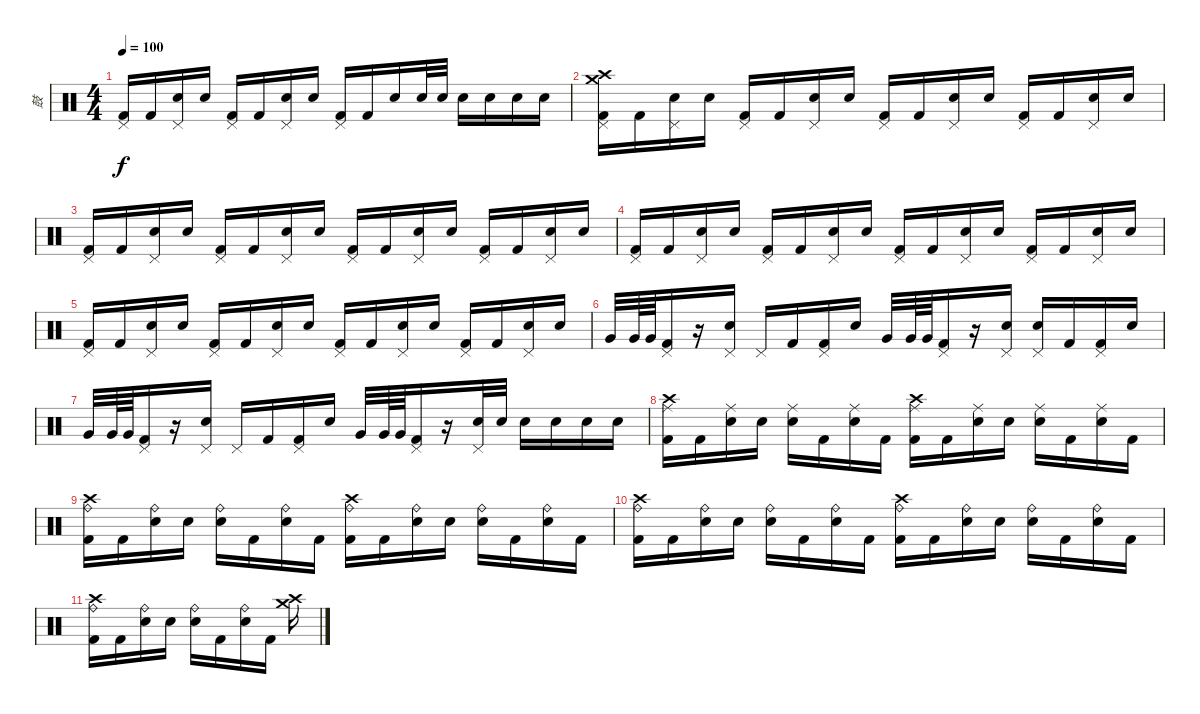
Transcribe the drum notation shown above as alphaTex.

\track ("鼓" "鼓") {instrument percussion}
\staff {score}
\articulation defaults
\ts (4 4)
\tempo 100
\clef neutral
\ks c
("Pedal Hi-Hat (hit)" "Kick (hit) 2").16{dy f} "Kick (hit) 2".16 ("Pedal Hi-Hat (hit)" "Electric Snare (hit)").16 "Snare (hit)".16 ("Pedal Hi-Hat (hit)" "Kick (hit) 2").16 "Kick (hit) 2".16 ("Pedal Hi-Hat (hit)" "Electric Snare (hit)").16 "Snare (hit)".16 ("Pedal Hi-Hat (hit)" "Kick (hit) 2").16 "Kick (hit) 2".16 "Electric Snare (hit)".16 "Electric Snare (hit)".32 "Electric Snare (hit)".32 "Electric Snare (hit)".16 "Electric Snare (hit)".16 "Electric Snare (hit)".16 "Electric Snare (hit)".16 |
("Crash medium (hit)" "Crash high (hit)" "Pedal Hi-Hat (hit)" "Kick (hit) 2").16 "Kick (hit) 2".16 ("Pedal Hi-Hat (hit)" "Electric Snare (hit)").16 "Snare (hit)".16 ("Pedal Hi-Hat (hit)" "Kick (hit) 2").16 "Kick (hit) 2".16 ("Pedal Hi-Hat (hit)" "Electric Snare (hit)").16 "Snare (hit)".16 ("Pedal Hi-Hat (hit)" "Kick (hit) 2").16 "Kick (hit) 2".16 ("Pedal Hi-Hat (hit)" "Electric Snare (hit)").16 "Snare (hit)".16 ("Pedal Hi-Hat (hit)" "Kick (hit) 2").16 "Kick (hit) 2".16 ("Pedal Hi-Hat (hit)" "Electric Snare (hit)").16 "Snare (hit)".16 |
("Pedal Hi-Hat (hit)" "Kick (hit) 2").16 "Kick (hit) 2".16 ("Pedal Hi-Hat (hit)" "Electric Snare (hit)").16 "Snare (hit)".16 ("Pedal Hi-Hat (hit)" "Kick (hit) 2").16 "Kick (hit) 2".16 ("Pedal Hi-Hat (hit)" "Electric Snare (hit)").16 "Snare (hit)".16 ("Pedal Hi-Hat (hit)" "Kick (hit) 2").16 "Kick (hit) 2".16 ("Pedal Hi-Hat (hit)" "Electric Snare (hit)").16 "Snare (hit)".16 ("Pedal Hi-Hat (hit)" "Kick (hit) 2").16 "Kick (hit) 2".16 ("Pedal Hi-Hat (hit)" "Electric Snare (hit)").16 "Snare (hit)".16 |
("Pedal Hi-Hat (hit)" "Kick (hit) 2").16 "Kick (hit) 2".16 ("Pedal Hi-Hat (hit)" "Electric Snare (hit)").16 "Snare (hit)".16 ("Pedal Hi-Hat (hit)" "Kick (hit) 2").16 "Kick (hit) 2".16 ("Pedal Hi-Hat (hit)" "Electric Snare (hit)").16 "Snare (hit)".16 ("Pedal Hi-Hat (hit)" "Kick (hit) 2").16 "Kick (hit) 2".16 ("Pedal Hi-Hat (hit)" "Electric Snare (hit)").16 "Snare (hit)".16 ("Pedal Hi-Hat (hit)" "Kick (hit) 2").16 "Kick (hit) 2".16 ("Pedal Hi-Hat (hit)" "Electric Snare (hit)").16 "Snare (hit)".16 |
("Pedal Hi-Hat (hit)" "Kick (hit) 2").16 "Kick (hit) 2".16 ("Pedal Hi-Hat (hit)" "Electric Snare (hit)").16 "Snare (hit)".16 ("Pedal Hi-Hat (hit)" "Kick (hit) 2").16 "Kick (hit) 2".16 ("Pedal Hi-Hat (hit)" "Electric Snare (hit)").16 "Snare (hit)".16 ("Pedal Hi-Hat (hit)" "Kick (hit) 2").16 "Kick (hit) 2".16 ("Pedal Hi-Hat (hit)" "Electric Snare (hit)").16 "Snare (hit)".16 ("Pedal Hi-Hat (hit)" "Kick (hit) 2").16 "Kick (hit) 2".16 ("Pedal Hi-Hat (hit)" "Electric Snare (hit)").16 "Snare (hit)".16 |
"Very Low Tom (hit)".32 "Very Low Tom (hit)".64 "Very Low Tom (hit)".64 ("Pedal Hi-Hat (hit)" "Kick (hit) 2").16 r.16 ("Pedal Hi-Hat (hit)" "Electric Snare (hit)").16 "Pedal Hi-Hat (hit)".16 "Kick (hit) 2".16 ("Pedal Hi-Hat (hit)" "Kick (hit) 2").16 "Electric Snare (hit)".16 "Very Low Tom (hit)".32 "Very Low Tom (hit)".64 "Very Low Tom (hit)".64 ("Pedal Hi-Hat (hit)" "Kick (hit) 2").16 r.16 ("Pedal Hi-Hat (hit)" "Electric Snare (hit)").16 ("Pedal Hi-Hat (hit)" "Snare (hit)").16 "Kick (hit) 2".16 ("Pedal Hi-Hat (hit)" "Kick (hit) 2").16 "Electric Snare (hit)".16 |
"Very Low Tom (hit)".32 "Very Low Tom (hit)".64 "Very Low Tom (hit)".64 ("Pedal Hi-Hat (hit)" "Kick (hit) 2").16 r.16 ("Pedal Hi-Hat (hit)" "Electric Snare (hit)").16 "Pedal Hi-Hat (hit)".16 "Kick (hit) 2".16 ("Pedal Hi-Hat (hit)" "Kick (hit) 2").16 "Electric Snare (hit)".16 "Very Low Tom (hit)".32 "Very Low Tom (hit)".64 "Very Low Tom (hit)".64 ("Pedal Hi-Hat (hit)" "Kick (hit) 2").16 r.16 ("Pedal Hi-Hat (hit)" "Electric Snare (hit)").32 "Electric Snare (hit)".32 "Electric Snare (hit)".16 "Electric Snare (hit)".16 "Electric Snare (hit)".16 "Electric Snare (hit)".16 |
("Crash high (hit)" "Ride (middle)" "Kick (hit) 2").16 "Kick (hit) 2".16 ("Ride (middle)" "Electric Snare (hit)").16 "Snare (hit)".16 ("Ride (middle)" "Electric Snare (hit)").16 "Kick (hit) 2".16 ("Ride (middle)" "Electric Snare (hit)").16 "Kick (hit) 2".16 ("Crash high (hit)" "Ride (middle)" "Kick (hit) 2").16 "Kick (hit) 2".16 ("Ride (middle)" "Electric Snare (hit)").16 "Snare (hit)".16 ("Ride (middle)" "Electric Snare (hit)").16 "Kick (hit) 2".16 ("Ride (middle)" "Electric Snare (hit)").16 "Kick (hit) 2".16 |
("Crash high (hit)" "Ride (bell)" "Kick (hit) 2").16 "Kick (hit) 2".16 ("Ride (bell)" "Electric Snare (hit)").16 "Snare (hit)".16 ("Ride (bell)" "Electric Snare (hit)").16 "Kick (hit) 2".16 ("Ride (bell)" "Electric Snare (hit)").16 "Kick (hit) 2".16 ("Crash high (hit)" "Ride (bell)" "Kick (hit) 2").16 "Kick (hit) 2".16 ("Ride (bell)" "Electric Snare (hit)").16 "Snare (hit)".16 ("Ride (bell)" "Electric Snare (hit)").16 "Kick (hit) 2".16 ("Ride (bell)" "Electric Snare (hit)").16 "Kick (hit) 2".16 |
("Crash high (hit)" "Ride (bell)" "Kick (hit) 2").16 "Kick (hit) 2".16 ("Ride (bell)" "Electric Snare (hit)").16 "Snare (hit)".16 ("Ride (bell)" "Electric Snare (hit)").16 "Kick (hit) 2".16 ("Ride (bell)" "Electric Snare (hit)").16 "Kick (hit) 2".16 ("Crash high (hit)" "Ride (bell)" "Kick (hit) 2").16 "Kick (hit) 2".16 ("Ride (bell)" "Electric Snare (hit)").16 "Snare (hit)".16 ("Ride (bell)" "Electric Snare (hit)").16 "Kick (hit) 2".16 ("Ride (bell)" "Electric Snare (hit)").16 "Kick (hit) 2".16 |
("Crash high (hit)" "Ride (bell)" "Kick (hit) 2").16 "Kick (hit) 2".16 ("Ride (bell)" "Electric Snare (hit)").16 "Snare (hit)".16 ("Ride (bell)" "Electric Snare (hit)").16 "Kick (hit) 2".16 ("Ride (bell)" "Electric Snare (hit)").16 "Kick (hit) 2".16 ("Crash high (hit)" "Crash medium (hit)").16
